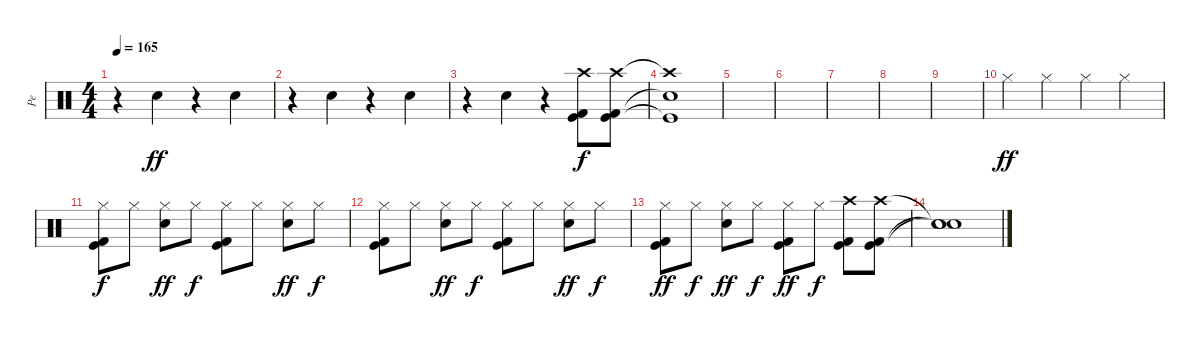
\track ("Pe" "Pe") {instrument percussion}
\staff {score}
\articulation defaults
\ts (4 4)
\tempo 165
\clef neutral
\ks c
r.4{dy ff} "Electric Snare (hit)".4 r.4 "Electric Snare (hit)".4 |
r.4 "Electric Snare (hit)".4 r.4 "Electric Snare (hit)".4 |
r.4 "Electric Snare (hit)".4 r.4 ("Crash high (hit)" "Kick (hit)" "Kick (hit) 2").8{dy f} ("Crash high (hit)" "Kick (hit)" "Kick (hit) 2").8 |
("Crash high (hit)"{t} "Kick (hit)"{t} "Snare (hit)"{t}).1 |
|
|
|
|
|
"Hi-Hat (closed)".4{dy ff} "Hi-Hat (closed)".4 "Hi-Hat (closed)".4 "Hi-Hat (closed)".4 |
("Kick (hit)" "Hi-Hat (closed)" "Kick (hit) 2").8{dy f} "Hi-Hat (closed)".8 ("Electric Snare (hit)" "Hi-Hat (closed)").8{dy ff} "Hi-Hat (closed)".8{dy f} ("Kick (hit)" "Hi-Hat (closed)" "Kick (hit) 2").8 "Hi-Hat (closed)".8 ("Electric Snare (hit)" "Hi-Hat (closed)").8{dy ff} "Hi-Hat (closed)".8{dy f} |
("Kick (hit)" "Hi-Hat (closed)" "Kick (hit) 2").8 "Hi-Hat (closed)".8 ("Electric Snare (hit)" "Hi-Hat (closed)").8{dy ff} "Hi-Hat (closed)".8{dy f} ("Kick (hit)" "Hi-Hat (closed)" "Kick (hit) 2").8 "Hi-Hat (closed)".8 ("Electric Snare (hit)" "Hi-Hat (closed)").8{dy ff} "Hi-Hat (closed)".8{dy f} |
("Kick (hit)" "Hi-Hat (closed)" "Kick (hit) 2").8{dy ff} "Hi-Hat (closed)".8{dy f} ("Electric Snare (hit)" "Hi-Hat (closed)").8{dy ff} "Hi-Hat (closed)".8{dy f} ("Kick (hit)" "Hi-Hat (closed)" "Kick (hit) 2").8{dy ff} "Hi-Hat (closed)".8{dy f} ("Crash high (hit)" "Kick (hit)" "Kick (hit) 2").8 ("Crash high (hit)" "Kick (hit)" "Kick (hit) 2").8 |
("Snare (hit)"{t} "Snare (hit)"{t} "Snare (hit)"{t}).1
